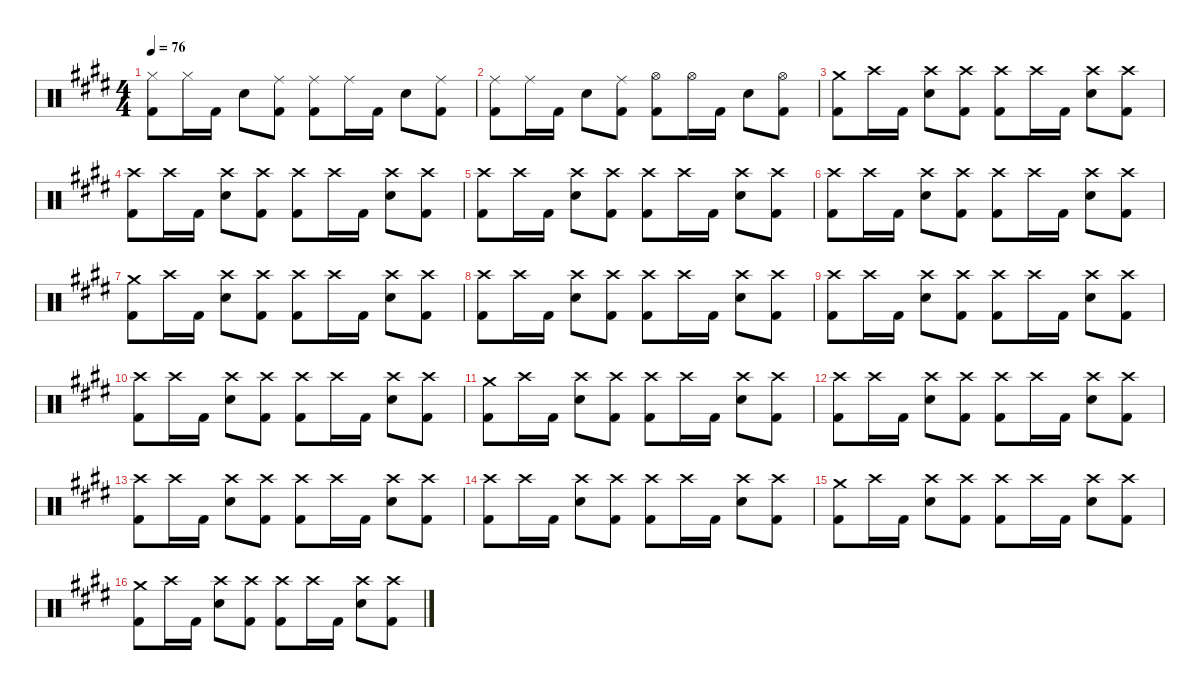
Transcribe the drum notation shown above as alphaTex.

\defaultSystemsLayout 4
\hideDynamics
\bracketExtendMode nobrackets
\singleTrackTrackNamePolicy hidden
\multiTrackTrackNamePolicy hidden
\firstSystemTrackNameMode fullname
\otherSystemsTrackNameOrientation horizontal
\track ("Drums" "drm.") {instrument percussion}
\staff {score}
\articulation defaults
\ts (4 4)
\tempo 76
\clef neutral
\ks e
("Hi-Hat (closed)"{acc forcenatural} "Kick (hit) 2"{acc forcenatural}).8{dy f beam Down} "Hi-Hat (closed)"{acc forcenatural}.16{beam Down} "Kick (hit) 2"{acc forcenatural}.16{beam Down} "Snare (hit) 2"{acc forcenatural}.8{beam Down} ("Ride (middle)"{acc forcenatural} "Kick (hit) 2"{acc forcenatural}).8{beam Down} ("Ride (middle)"{acc forcenatural} "Kick (hit) 2"{acc forcenatural}).8{beam Down} "Ride (middle)"{acc forcenatural}.16{beam Down} "Kick (hit) 2"{acc forcenatural}.16{beam Down} "Snare (hit) 2"{acc forcenatural}.8{beam Down} ("Ride (middle)"{acc forcenatural} "Kick (hit) 2"{acc forcenatural}).8{beam Down} |
("Ride (middle)"{acc forcenatural} "Kick (hit) 2"{acc forcenatural}).8{beam Down} "Ride (middle)"{acc forcenatural}.16{beam Down} "Kick (hit) 2"{acc forcenatural}.16{beam Down} "Snare (hit) 2"{acc forcenatural}.8{beam Down} ("Ride (middle)"{acc forcenatural} "Kick (hit) 2"{acc forcenatural}).8{beam Down} ("Hi-Hat (open)"{acc forcenatural} "Kick (hit) 2"{acc forcenatural}).8{beam Down} "Hi-Hat (open)"{acc forcenatural}.16{beam Down} "Kick (hit) 2"{acc forcenatural}.16{beam Down} "Snare (hit) 2"{acc forcenatural}.8{beam Down} ("Hi-Hat (open)"{acc forcenatural} "Kick (hit) 2"{acc forcenatural}).8{beam Down} |
("Crash medium (hit)"{acc forcenatural} "Kick (hit) 2"{acc forcenatural}).8{beam Down} "Crash high (hit)"{acc forcenatural}.16{beam Down} "Kick (hit) 2"{acc forcenatural}.16{beam Down} ("Crash high (hit)"{acc forcenatural} "Snare (hit) 2"{acc forcenatural}).8{beam Down} ("Crash high (hit)"{acc forcenatural} "Kick (hit) 2"{acc forcenatural}).8{beam Down} ("Crash high (hit)"{acc forcenatural} "Kick (hit) 2"{acc forcenatural}).8{beam Down} "Crash high (hit)"{acc forcenatural}.16{beam Down} "Kick (hit) 2"{acc forcenatural}.16{beam Down} ("Crash high (hit)"{acc forcenatural} "Snare (hit) 2"{acc forcenatural}).8{beam Down} ("Crash high (hit)"{acc forcenatural} "Kick (hit) 2"{acc forcenatural}).8{beam Down} |
("Crash high (hit)"{acc forcenatural} "Kick (hit) 2"{acc forcenatural}).8{beam Down} "Crash high (hit)"{acc forcenatural}.16{beam Down} "Kick (hit) 2"{acc forcenatural}.16{beam Down} ("Crash high (hit)"{acc forcenatural} "Snare (hit) 2"{acc forcenatural}).8{beam Down} ("Crash high (hit)"{acc forcenatural} "Kick (hit) 2"{acc forcenatural}).8{beam Down} ("Crash high (hit)"{acc forcenatural} "Kick (hit) 2"{acc forcenatural}).8{beam Down} "Crash high (hit)"{acc forcenatural}.16{beam Down} "Kick (hit) 2"{acc forcenatural}.16{beam Down} ("Crash high (hit)"{acc forcenatural} "Snare (hit) 2"{acc forcenatural}).8{beam Down} ("Crash high (hit)"{acc forcenatural} "Kick (hit) 2"{acc forcenatural}).8{beam Down} |
("Crash high (hit)"{acc forcenatural} "Kick (hit) 2"{acc forcenatural}).8{beam Down} "Crash high (hit)"{acc forcenatural}.16{beam Down} "Kick (hit) 2"{acc forcenatural}.16{beam Down} ("Crash high (hit)"{acc forcenatural} "Snare (hit) 2"{acc forcenatural}).8{beam Down} ("Crash high (hit)"{acc forcenatural} "Kick (hit) 2"{acc forcenatural}).8{beam Down} ("Crash high (hit)"{acc forcenatural} "Kick (hit) 2"{acc forcenatural}).8{beam Down} "Crash high (hit)"{acc forcenatural}.16{beam Down} "Kick (hit) 2"{acc forcenatural}.16{beam Down} ("Crash high (hit)"{acc forcenatural} "Snare (hit) 2"{acc forcenatural}).8{beam Down} ("Crash high (hit)"{acc forcenatural} "Kick (hit) 2"{acc forcenatural}).8{beam Down} |
("Crash high (hit)"{acc forcenatural} "Kick (hit) 2"{acc forcenatural}).8{beam Down} "Crash high (hit)"{acc forcenatural}.16{beam Down} "Kick (hit) 2"{acc forcenatural}.16{beam Down} ("Crash high (hit)"{acc forcenatural} "Snare (hit) 2"{acc forcenatural}).8{beam Down} ("Crash high (hit)"{acc forcenatural} "Kick (hit) 2"{acc forcenatural}).8{beam Down} ("Crash high (hit)"{acc forcenatural} "Kick (hit) 2"{acc forcenatural}).8{beam Down} "Crash high (hit)"{acc forcenatural}.16{beam Down} "Kick (hit) 2"{acc forcenatural}.16{beam Down} ("Crash high (hit)"{acc forcenatural} "Snare (hit) 2"{acc forcenatural}).8{beam Down} ("Crash high (hit)"{acc forcenatural} "Kick (hit) 2"{acc forcenatural}).8{beam Down} |
("Crash medium (hit)"{acc forcenatural} "Kick (hit) 2"{acc forcenatural}).8{beam Down} "Crash high (hit)"{acc forcenatural}.16{beam Down} "Kick (hit) 2"{acc forcenatural}.16{beam Down} ("Crash high (hit)"{acc forcenatural} "Snare (hit) 2"{acc forcenatural}).8{dy mf beam Down} ("Crash high (hit)"{acc forcenatural} "Kick (hit) 2"{acc forcenatural}).8{dy f beam Down} ("Crash high (hit)"{acc forcenatural} "Kick (hit) 2"{acc forcenatural}).8{beam Down} "Crash high (hit)"{acc forcenatural}.16{beam Down} "Kick (hit) 2"{acc forcenatural}.16{beam Down} ("Crash high (hit)"{acc forcenatural} "Snare (hit) 2"{acc forcenatural}).8{dy mf beam Down} ("Crash high (hit)"{acc forcenatural} "Kick (hit) 2"{acc forcenatural}).8{dy f beam Down} |
("Crash high (hit)"{acc forcenatural} "Kick (hit) 2"{acc forcenatural}).8{beam Down} "Crash high (hit)"{acc forcenatural}.16{beam Down} "Kick (hit) 2"{acc forcenatural}.16{beam Down} ("Crash high (hit)"{acc forcenatural} "Snare (hit) 2"{acc forcenatural}).8{dy mf beam Down} ("Crash high (hit)"{acc forcenatural} "Kick (hit) 2"{acc forcenatural}).8{dy f beam Down} ("Crash high (hit)"{acc forcenatural} "Kick (hit) 2"{acc forcenatural}).8{beam Down} "Crash high (hit)"{acc forcenatural}.16{beam Down} "Kick (hit) 2"{acc forcenatural}.16{beam Down} ("Crash high (hit)"{acc forcenatural} "Snare (hit) 2"{acc forcenatural}).8{dy mf beam Down} ("Crash high (hit)"{acc forcenatural} "Kick (hit) 2"{acc forcenatural}).8{dy f beam Down} |
("Crash high (hit)"{acc forcenatural} "Kick (hit) 2"{acc forcenatural}).8{beam Down} "Crash high (hit)"{acc forcenatural}.16{beam Down} "Kick (hit) 2"{acc forcenatural}.16{beam Down} ("Crash high (hit)"{acc forcenatural} "Snare (hit) 2"{acc forcenatural}).8{dy mf beam Down} ("Crash high (hit)"{acc forcenatural} "Kick (hit) 2"{acc forcenatural}).8{dy f beam Down} ("Crash high (hit)"{acc forcenatural} "Kick (hit) 2"{acc forcenatural}).8{beam Down} "Crash high (hit)"{acc forcenatural}.16{beam Down} "Kick (hit) 2"{acc forcenatural}.16{beam Down} ("Crash high (hit)"{acc forcenatural} "Snare (hit) 2"{acc forcenatural}).8{dy mf beam Down} ("Crash high (hit)"{acc forcenatural} "Kick (hit) 2"{acc forcenatural}).8{dy f beam Down} |
("Crash high (hit)"{acc forcenatural} "Kick (hit) 2"{acc forcenatural}).8{beam Down} "Crash high (hit)"{acc forcenatural}.16{beam Down} "Kick (hit) 2"{acc forcenatural}.16{beam Down} ("Crash high (hit)"{acc forcenatural} "Snare (hit) 2"{acc forcenatural}).8{dy mf beam Down} ("Crash high (hit)"{acc forcenatural} "Kick (hit) 2"{acc forcenatural}).8{dy f beam Down} ("Crash high (hit)"{acc forcenatural} "Kick (hit) 2"{acc forcenatural}).8{beam Down} "Crash high (hit)"{acc forcenatural}.16{beam Down} "Kick (hit) 2"{acc forcenatural}.16{beam Down} ("Crash high (hit)"{acc forcenatural} "Snare (hit) 2"{acc forcenatural}).8{dy mf beam Down} ("Crash high (hit)"{acc forcenatural} "Kick (hit) 2"{acc forcenatural}).8{dy f beam Down} |
("Crash medium (hit)"{acc forcenatural} "Kick (hit) 2"{acc forcenatural}).8{beam Down} "Crash high (hit)"{acc forcenatural}.16{beam Down} "Kick (hit) 2"{acc forcenatural}.16{beam Down} ("Crash high (hit)"{acc forcenatural} "Snare (hit) 2"{acc forcenatural}).8{dy mf beam Down} ("Crash high (hit)"{acc forcenatural} "Kick (hit) 2"{acc forcenatural}).8{dy f beam Down} ("Crash high (hit)"{acc forcenatural} "Kick (hit) 2"{acc forcenatural}).8{beam Down} "Crash high (hit)"{acc forcenatural}.16{beam Down} "Kick (hit) 2"{acc forcenatural}.16{beam Down} ("Crash high (hit)"{acc forcenatural} "Snare (hit) 2"{acc forcenatural}).8{dy mf beam Down} ("Crash high (hit)"{acc forcenatural} "Kick (hit) 2"{acc forcenatural}).8{dy f beam Down} |
("Crash high (hit)"{acc forcenatural} "Kick (hit) 2"{acc forcenatural}).8{beam Down} "Crash high (hit)"{acc forcenatural}.16{beam Down} "Kick (hit) 2"{acc forcenatural}.16{beam Down} ("Crash high (hit)"{acc forcenatural} "Snare (hit) 2"{acc forcenatural}).8{dy mf beam Down} ("Crash high (hit)"{acc forcenatural} "Kick (hit) 2"{acc forcenatural}).8{dy f beam Down} ("Crash high (hit)"{acc forcenatural} "Kick (hit) 2"{acc forcenatural}).8{beam Down} "Crash high (hit)"{acc forcenatural}.16{beam Down} "Kick (hit) 2"{acc forcenatural}.16{beam Down} ("Crash high (hit)"{acc forcenatural} "Snare (hit) 2"{acc forcenatural}).8{dy mf beam Down} ("Crash high (hit)"{acc forcenatural} "Kick (hit) 2"{acc forcenatural}).8{dy f beam Down} |
("Crash high (hit)"{acc forcenatural} "Kick (hit) 2"{acc forcenatural}).8{beam Down} "Crash high (hit)"{acc forcenatural}.16{beam Down} "Kick (hit) 2"{acc forcenatural}.16{beam Down} ("Crash high (hit)"{acc forcenatural} "Snare (hit) 2"{acc forcenatural}).8{dy mf beam Down} ("Crash high (hit)"{acc forcenatural} "Kick (hit) 2"{acc forcenatural}).8{dy f beam Down} ("Crash high (hit)"{acc forcenatural} "Kick (hit) 2"{acc forcenatural}).8{beam Down} "Crash high (hit)"{acc forcenatural}.16{beam Down} "Kick (hit) 2"{acc forcenatural}.16{beam Down} ("Crash high (hit)"{acc forcenatural} "Snare (hit) 2"{acc forcenatural}).8{dy mf beam Down} ("Crash high (hit)"{acc forcenatural} "Kick (hit) 2"{acc forcenatural}).8{dy f beam Down} |
("Crash high (hit)"{acc forcenatural} "Kick (hit) 2"{acc forcenatural}).8{beam Down} "Crash high (hit)"{acc forcenatural}.16{beam Down} "Kick (hit) 2"{acc forcenatural}.16{beam Down} ("Crash high (hit)"{acc forcenatural} "Snare (hit) 2"{acc forcenatural}).8{dy mf beam Down} ("Crash high (hit)"{acc forcenatural} "Kick (hit) 2"{acc forcenatural}).8{dy f beam Down} ("Crash high (hit)"{acc forcenatural} "Kick (hit) 2"{acc forcenatural}).8{beam Down} "Crash high (hit)"{acc forcenatural}.16{beam Down} "Kick (hit) 2"{acc forcenatural}.16{beam Down} ("Crash high (hit)"{acc forcenatural} "Snare (hit) 2"{acc forcenatural}).8{dy mf beam Down} ("Crash high (hit)"{acc forcenatural} "Kick (hit) 2"{acc forcenatural}).8{dy f beam Down} |
("Crash medium (hit)"{acc forcenatural} "Kick (hit) 2"{acc forcenatural}).8{beam Down} "Crash high (hit)"{acc forcenatural}.16{beam Down} "Kick (hit) 2"{acc forcenatural}.16{beam Down} ("Crash high (hit)"{acc forcenatural} "Snare (hit) 2"{acc forcenatural}).8{dy mf beam Down} ("Crash high (hit)"{acc forcenatural} "Kick (hit) 2"{acc forcenatural}).8{dy f beam Down} ("Crash high (hit)"{acc forcenatural} "Kick (hit) 2"{acc forcenatural}).8{beam Down} "Crash high (hit)"{acc forcenatural}.16{beam Down} "Kick (hit) 2"{acc forcenatural}.16{beam Down} ("Crash high (hit)"{acc forcenatural} "Snare (hit) 2"{acc forcenatural}).8{dy mf beam Down} ("Crash high (hit)"{acc forcenatural} "Kick (hit) 2"{acc forcenatural}).8{dy f beam Down} |
("Crash medium (hit)"{acc forcenatural} "Kick (hit) 2"{acc forcenatural}).8{beam Down} "Crash high (hit)"{acc forcenatural}.16{beam Down} "Kick (hit) 2"{acc forcenatural}.16{beam Down} ("Crash high (hit)"{acc forcenatural} "Snare (hit) 2"{acc forcenatural}).8{dy mf beam Down} ("Crash high (hit)"{acc forcenatural} "Kick (hit) 2"{acc forcenatural}).8{dy f beam Down} ("Crash high (hit)"{acc forcenatural} "Kick (hit) 2"{acc forcenatural}).8{beam Down} "Crash high (hit)"{acc forcenatural}.16{beam Down} "Kick (hit) 2"{acc forcenatural}.16{beam Down} ("Crash high (hit)"{acc forcenatural} "Snare (hit) 2"{acc forcenatural}).8{dy mf beam Down} ("Crash high (hit)"{acc forcenatural} "Kick (hit) 2"{acc forcenatural}).8{dy f beam Down}
